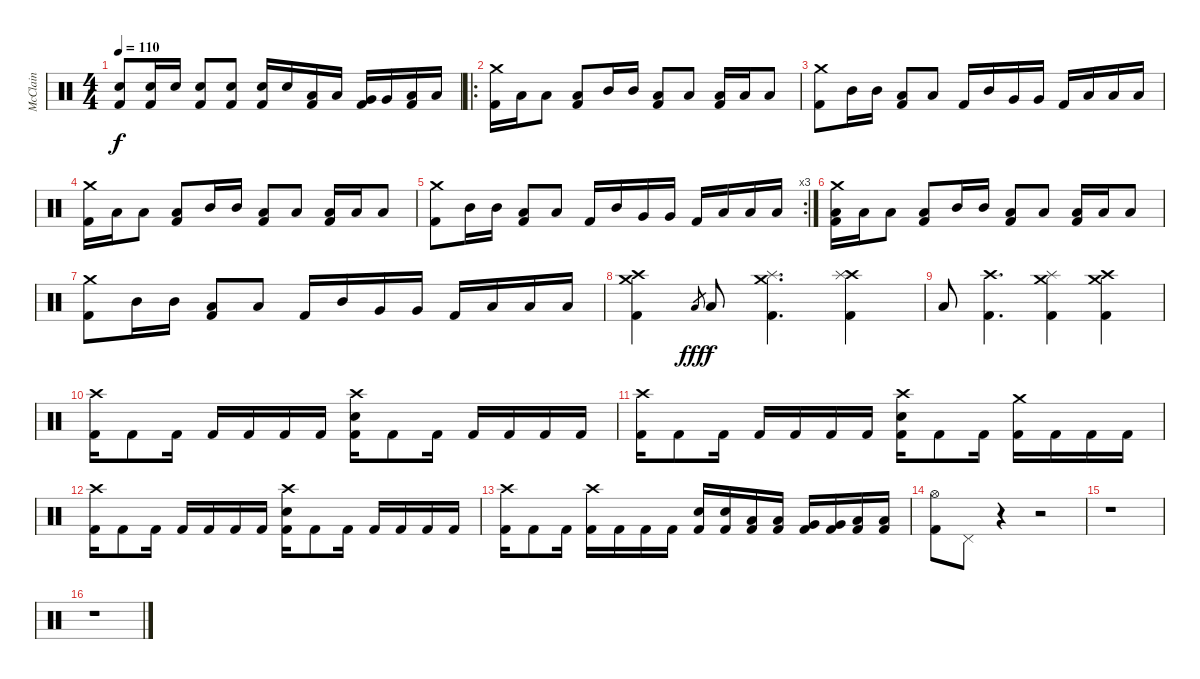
\track ("McClain" "McClain") {instrument percussion}
\staff {score}
\articulation defaults
\ts (4 4)
\tempo 110
\clef neutral
\ks c
("Electric Snare (hit)" "Kick (hit) 2").8{dy f} ("Electric Snare (hit)" "Kick (hit) 2").16 "Electric Snare (hit)".16 ("Electric Snare (hit)" "Kick (hit) 2").8 ("Electric Snare (hit)" "Kick (hit) 2").8 ("Electric Snare (hit)" "Kick (hit) 2").16 "Electric Snare (hit)".16 ("Low Tom (hit)" "Kick (hit) 2").16 "Low Tom (hit)".16 ("Very Low Tom (hit)" "Kick (hit) 2").16 "Very Low Tom (hit)".16 ("Low Floor Tom (hit)" "Kick (hit) 2").16 "Low Floor Tom (hit)".16 |
\ro
("Crash medium (hit)" "Kick (hit) 2").16 "Low Floor Tom (hit)".16 "Low Floor Tom (hit)".8 ("Low Floor Tom (hit)" "Kick (hit) 2").8 "Mid Tom (hit)".16 "Mid Tom (hit)".16 ("Low Floor Tom (hit)" "Kick (hit) 2").8 "Low Floor Tom (hit)".8 ("Low Floor Tom (hit)" "Kick (hit) 2").16 "Low Floor Tom (hit)".16 "Low Floor Tom (hit)".8 |
("Crash medium (hit)" "Kick (hit) 2").8 "Mid Tom (hit)".16 "Mid Tom (hit)".16 ("Low Floor Tom (hit)" "Kick (hit) 2").8 "Low Floor Tom (hit)".8 "Kick (hit) 2".16 "Mid Tom (hit)".16 "Very Low Tom (hit)".16 "Very Low Tom (hit)".16 "Kick (hit) 2".16 "Low Tom (hit)".16 "Low Floor Tom (hit)".16 "Low Floor Tom (hit)".16 |
("Crash medium (hit)" "Kick (hit) 2").16 "Low Floor Tom (hit)".16 "Low Floor Tom (hit)".8 ("Low Floor Tom (hit)" "Kick (hit) 2").8 "Mid Tom (hit)".16 "Mid Tom (hit)".16 ("Low Floor Tom (hit)" "Kick (hit) 2").8 "Low Floor Tom (hit)".8 ("Low Floor Tom (hit)" "Kick (hit) 2").16 "Low Floor Tom (hit)".16 "Low Floor Tom (hit)".8 |
\rc 3
("Crash medium (hit)" "Kick (hit) 2").8 "Mid Tom (hit)".16 "Mid Tom (hit)".16 ("Low Floor Tom (hit)" "Kick (hit) 2").8 "Low Floor Tom (hit)".8 "Kick (hit) 2".16 "Mid Tom (hit)".16 "Very Low Tom (hit)".16 "Very Low Tom (hit)".16 "Kick (hit) 2".16 "Low Tom (hit)".16 "Low Floor Tom (hit)".16 "Low Floor Tom (hit)".16 |
("Crash medium (hit)" "Low Floor Tom (hit)" "Kick (hit) 2").16 "Low Floor Tom (hit)".16 "Low Floor Tom (hit)".8 ("Low Floor Tom (hit)" "Kick (hit) 2").8 "Mid Tom (hit)".16 "Mid Tom (hit)".16 ("Low Floor Tom (hit)" "Kick (hit) 2").8 "Low Floor Tom (hit)".8 ("Low Floor Tom (hit)" "Kick (hit) 2").16 "Low Floor Tom (hit)".16 "Low Floor Tom (hit)".8 |
("Crash medium (hit)" "Kick (hit) 2").8 "Mid Tom (hit)".16 "Mid Tom (hit)".16 ("Low Floor Tom (hit)" "Kick (hit) 2").8 "Low Floor Tom (hit)".8 "Kick (hit) 2".16 "Mid Tom (hit)".16 "Very Low Tom (hit)".16 "Very Low Tom (hit)".16 "Kick (hit) 2".16 "Low Tom (hit)".16 "Low Floor Tom (hit)".16 "Low Floor Tom (hit)".16 |
("Crash high (hit)" "Crash medium (hit)" "Kick (hit) 2").4 "Low Tom (hit)".8{gr dy fff} "Low Floor Tom (hit)".8{dy f} ("Crash medium (hit)" "Splash (hit)" "Kick (hit) 2").4{d} ("Crash high (hit)" "Splash (hit)" "Kick (hit) 2").4 |
"Low Floor Tom (hit)".8 ("Crash high (hit)" "Kick (hit) 2").4{d} ("Crash medium (hit)" "Splash (hit)" "Kick (hit) 2").4 ("Crash high (hit)" "Crash medium (hit)" "Kick (hit) 2").4 |
("Crash high (hit)" "Kick (hit) 2").16 "Kick (hit) 2".8 "Kick (hit) 2".16 "Kick (hit) 2".16 "Kick (hit) 2".16 "Kick (hit) 2".16 "Kick (hit) 2".16 ("Crash high (hit)" "Electric Snare (hit)" "Kick (hit) 2").16 "Kick (hit) 2".8 "Kick (hit) 2".16 "Kick (hit) 2".16 "Kick (hit) 2".16 "Kick (hit) 2".16 "Kick (hit) 2".16 |
("Crash high (hit)" "Kick (hit) 2").16 "Kick (hit) 2".8 "Kick (hit) 2".16 "Kick (hit) 2".16 "Kick (hit) 2".16 "Kick (hit) 2".16 "Kick (hit) 2".16 ("Crash high (hit)" "Electric Snare (hit)" "Kick (hit) 2").16 "Kick (hit) 2".8 "Kick (hit) 2".16 ("Crash medium (hit)" "Kick (hit) 2").16 "Kick (hit) 2".16 "Kick (hit) 2".16 "Kick (hit) 2".16 |
("Crash high (hit)" "Kick (hit) 2").16 "Kick (hit) 2".8 "Kick (hit) 2".16 "Kick (hit) 2".16 "Kick (hit) 2".16 "Kick (hit) 2".16 "Kick (hit) 2".16 ("Crash high (hit)" "Electric Snare (hit)" "Kick (hit) 2").16 "Kick (hit) 2".8 "Kick (hit) 2".16 "Kick (hit) 2".16 "Kick (hit) 2".16 "Kick (hit) 2".16 "Kick (hit) 2".16 |
("Crash high (hit)" "Kick (hit) 2").16 "Kick (hit) 2".8 "Kick (hit) 2".16 ("Crash high (hit)" "Kick (hit) 2").16 "Kick (hit) 2".16 "Kick (hit) 2".16 "Kick (hit) 2".16 ("Electric Snare (hit)" "Kick (hit) 2").16 ("Electric Snare (hit)" "Kick (hit) 2").16 ("Low Tom (hit)" "Kick (hit) 2").16 ("Low Tom (hit)" "Kick (hit) 2").16 ("Very Low Tom (hit)" "Kick (hit) 2").16 ("Very Low Tom (hit)" "Kick (hit) 2").16 ("Low Floor Tom (hit)" "Kick (hit) 2").16 ("Low Floor Tom (hit)" "Kick (hit) 2").16 |
("Hi-Hat (open)" "Kick (hit) 2").8 "Pedal Hi-Hat (hit)".8 r.4 r.2 |
r.1 |
r.1
